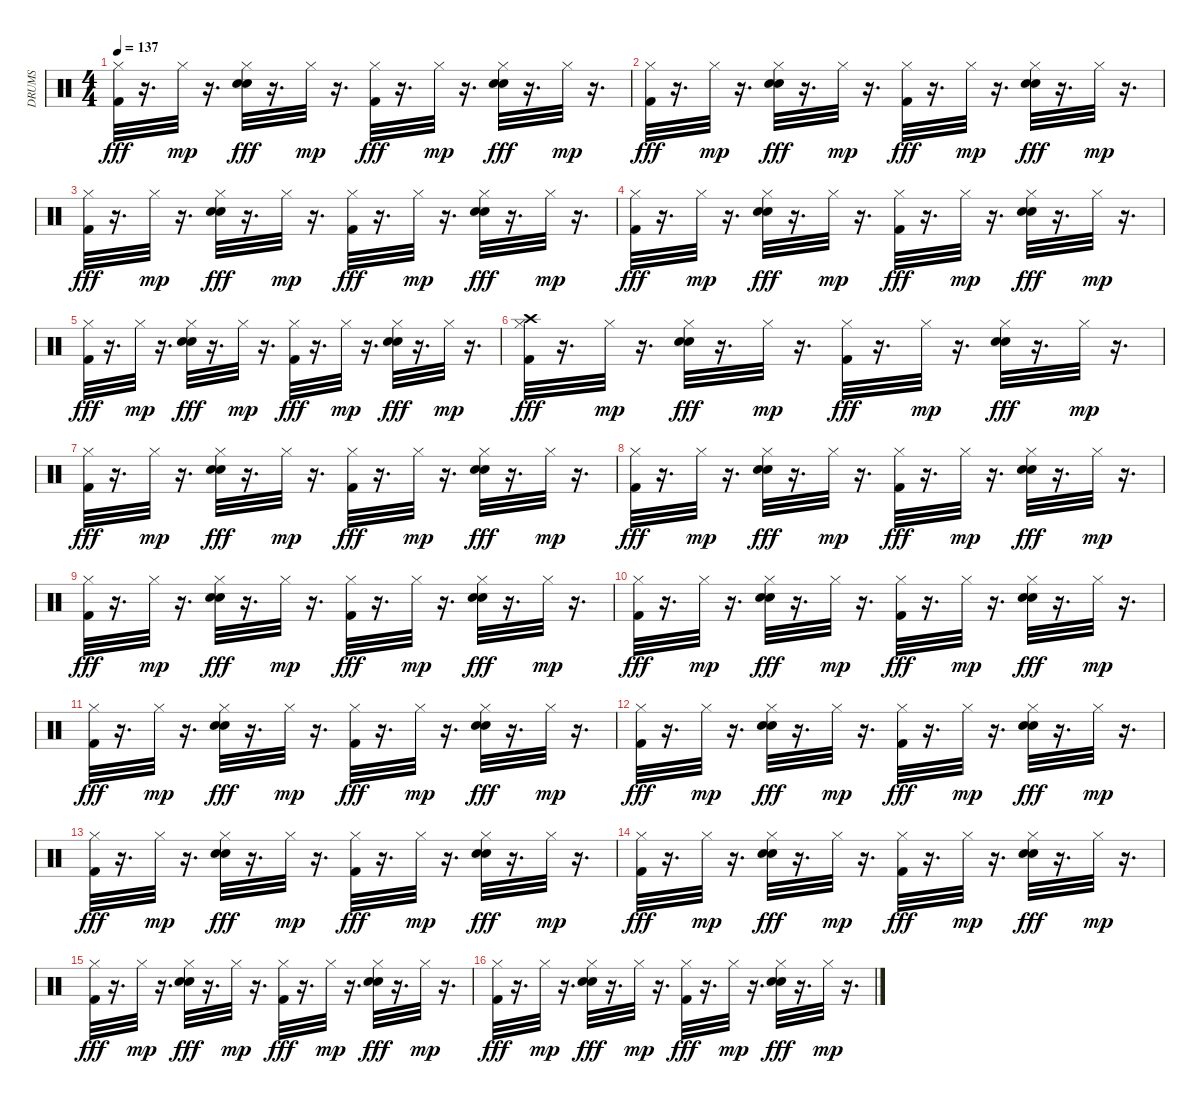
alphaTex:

\track ("DRUMS" "DRUMS") {instrument percussion}
\staff {score}
\articulation defaults
\ts (4 4)
\tempo 137
\clef neutral
\ks c
("Hi-Hat (closed)" "Kick (hit) 2").32{dy fff} r.16{d} "Hi-Hat (closed)".32{dy mp} r.16{d} ("Hand Clap (hit)" "Hi-Hat (closed)" "Snare (hit) 2").32{dy fff} r.16{d} "Hi-Hat (closed)".32{dy mp} r.16{d} ("Hi-Hat (closed)" "Kick (hit) 2").32{dy fff} r.16{d} "Hi-Hat (closed)".32{dy mp} r.16{d} ("Hand Clap (hit)" "Hi-Hat (closed)" "Snare (hit) 2").32{dy fff} r.16{d} "Hi-Hat (closed)".32{dy mp} r.16{d} |
("Kick (hit) 2" "Hi-Hat (closed)").32{dy fff} r.16{d} "Hi-Hat (closed)".32{dy mp} r.16{d} ("Hand Clap (hit)" "Hi-Hat (closed)" "Snare (hit) 2").32{dy fff} r.16{d} "Hi-Hat (closed)".32{dy mp} r.16{d} ("Hi-Hat (closed)" "Kick (hit) 2").32{dy fff} r.16{d} "Hi-Hat (closed)".32{dy mp} r.16{d} ("Hand Clap (hit)" "Hi-Hat (closed)" "Snare (hit) 2").32{dy fff} r.16{d} "Hi-Hat (closed)".32{dy mp} r.16{d} |
("Hi-Hat (closed)" "Kick (hit) 2").32{dy fff} r.16{d} "Hi-Hat (closed)".32{dy mp} r.16{d} ("Hand Clap (hit)" "Hi-Hat (closed)" "Snare (hit) 2").32{dy fff} r.16{d} "Hi-Hat (closed)".32{dy mp} r.16{d} ("Hi-Hat (closed)" "Kick (hit) 2").32{dy fff} r.16{d} "Hi-Hat (closed)".32{dy mp} r.16{d} ("Hand Clap (hit)" "Hi-Hat (closed)" "Snare (hit) 2").32{dy fff} r.16{d} "Hi-Hat (closed)".32{dy mp} r.16{d} |
("Hi-Hat (closed)" "Kick (hit) 2").32{dy fff} r.16{d} "Hi-Hat (closed)".32{dy mp} r.16{d} ("Hand Clap (hit)" "Hi-Hat (closed)" "Snare (hit) 2").32{dy fff} r.16{d} "Hi-Hat (closed)".32{dy mp} r.16{d} ("Hi-Hat (closed)" "Kick (hit) 2").32{dy fff} r.16{d} "Hi-Hat (closed)".32{dy mp} r.16{d} ("Hand Clap (hit)" "Hi-Hat (closed)" "Snare (hit) 2").32{dy fff} r.16{d} "Hi-Hat (closed)".32{dy mp} r.16{d} |
("Hi-Hat (closed)" "Kick (hit) 2").32{dy fff} r.16{d} "Hi-Hat (closed)".32{dy mp} r.16{d} ("Hand Clap (hit)" "Hi-Hat (closed)" "Snare (hit) 2").32{dy fff} r.16{d} "Hi-Hat (closed)".32{dy mp} r.16{d} ("Hi-Hat (closed)" "Kick (hit) 2").32{dy fff} r.16{d} "Hi-Hat (closed)".32{dy mp} r.16{d} ("Hand Clap (hit)" "Hi-Hat (closed)" "Snare (hit) 2").32{dy fff} r.16{d} "Hi-Hat (closed)".32{dy mp} r.16{d} |
("Kick (hit) 2" "Hi-Hat (closed)" "Crash high (hit)").32{dy fff} r.16{d} "Hi-Hat (closed)".32{dy mp} r.16{d} ("Hand Clap (hit)" "Hi-Hat (closed)" "Snare (hit) 2").32{dy fff} r.16{d} "Hi-Hat (closed)".32{dy mp} r.16{d} ("Hi-Hat (closed)" "Kick (hit) 2").32{dy fff} r.16{d} "Hi-Hat (closed)".32{dy mp} r.16{d} ("Snare (hit) 2" "Hand Clap (hit)" "Hi-Hat (closed)").32{dy fff} r.16{d} "Hi-Hat (closed)".32{dy mp} r.16{d} |
("Hi-Hat (closed)" "Kick (hit) 2").32{dy fff} r.16{d} "Hi-Hat (closed)".32{dy mp} r.16{d} ("Hand Clap (hit)" "Hi-Hat (closed)" "Snare (hit) 2").32{dy fff} r.16{d} "Hi-Hat (closed)".32{dy mp} r.16{d} ("Hi-Hat (closed)" "Kick (hit) 2").32{dy fff} r.16{d} "Hi-Hat (closed)".32{dy mp} r.16{d} ("Hand Clap (hit)" "Hi-Hat (closed)" "Snare (hit) 2").32{dy fff} r.16{d} "Hi-Hat (closed)".32{dy mp} r.16{d} |
("Hi-Hat (closed)" "Kick (hit) 2").32{dy fff} r.16{d} "Hi-Hat (closed)".32{dy mp} r.16{d} ("Hand Clap (hit)" "Hi-Hat (closed)" "Snare (hit) 2").32{dy fff} r.16{d} "Hi-Hat (closed)".32{dy mp} r.16{d} ("Hi-Hat (closed)" "Kick (hit) 2").32{dy fff} r.16{d} "Hi-Hat (closed)".32{dy mp} r.16{d} ("Hand Clap (hit)" "Hi-Hat (closed)" "Snare (hit) 2").32{dy fff} r.16{d} "Hi-Hat (closed)".32{dy mp} r.16{d} |
("Hi-Hat (closed)" "Kick (hit) 2").32{dy fff} r.16{d} "Hi-Hat (closed)".32{dy mp} r.16{d} ("Hand Clap (hit)" "Hi-Hat (closed)" "Snare (hit) 2").32{dy fff} r.16{d} "Hi-Hat (closed)".32{dy mp} r.16{d} ("Hi-Hat (closed)" "Kick (hit) 2").32{dy fff} r.16{d} "Hi-Hat (closed)".32{dy mp} r.16{d} ("Hand Clap (hit)" "Hi-Hat (closed)" "Snare (hit) 2").32{dy fff} r.16{d} "Hi-Hat (closed)".32{dy mp} r.16{d} |
("Hi-Hat (closed)" "Kick (hit) 2").32{dy fff} r.16{d} "Hi-Hat (closed)".32{dy mp} r.16{d} ("Hand Clap (hit)" "Hi-Hat (closed)" "Snare (hit) 2").32{dy fff} r.16{d} "Hi-Hat (closed)".32{dy mp} r.16{d} ("Hi-Hat (closed)" "Kick (hit) 2").32{dy fff} r.16{d} "Hi-Hat (closed)".32{dy mp} r.16{d} ("Hand Clap (hit)" "Hi-Hat (closed)" "Snare (hit) 2").32{dy fff} r.16{d} "Hi-Hat (closed)".32{dy mp} r.16{d} |
("Hi-Hat (closed)" "Kick (hit) 2").32{dy fff} r.16{d} "Hi-Hat (closed)".32{dy mp} r.16{d} ("Hand Clap (hit)" "Hi-Hat (closed)" "Snare (hit) 2").32{dy fff} r.16{d} "Hi-Hat (closed)".32{dy mp} r.16{d} ("Hi-Hat (closed)" "Kick (hit) 2").32{dy fff} r.16{d} "Hi-Hat (closed)".32{dy mp} r.16{d} ("Hand Clap (hit)" "Hi-Hat (closed)" "Snare (hit) 2").32{dy fff} r.16{d} "Hi-Hat (closed)".32{dy mp} r.16{d} |
("Hi-Hat (closed)" "Kick (hit) 2").32{dy fff} r.16{d} "Hi-Hat (closed)".32{dy mp} r.16{d} ("Hand Clap (hit)" "Hi-Hat (closed)" "Snare (hit) 2").32{dy fff} r.16{d} "Hi-Hat (closed)".32{dy mp} r.16{d} ("Hi-Hat (closed)" "Kick (hit) 2").32{dy fff} r.16{d} "Hi-Hat (closed)".32{dy mp} r.16{d} ("Hand Clap (hit)" "Hi-Hat (closed)" "Snare (hit) 2").32{dy fff} r.16{d} "Hi-Hat (closed)".32{dy mp} r.16{d} |
("Hi-Hat (closed)" "Kick (hit) 2").32{dy fff} r.16{d} "Hi-Hat (closed)".32{dy mp} r.16{d} ("Hand Clap (hit)" "Hi-Hat (closed)" "Snare (hit) 2").32{dy fff} r.16{d} "Hi-Hat (closed)".32{dy mp} r.16{d} ("Hi-Hat (closed)" "Kick (hit) 2").32{dy fff} r.16{d} "Hi-Hat (closed)".32{dy mp} r.16{d} ("Hand Clap (hit)" "Hi-Hat (closed)" "Snare (hit) 2").32{dy fff} r.16{d} "Hi-Hat (closed)".32{dy mp} r.16{d} |
("Hi-Hat (closed)" "Kick (hit) 2").32{dy fff} r.16{d} "Hi-Hat (closed)".32{dy mp} r.16{d} ("Hand Clap (hit)" "Hi-Hat (closed)" "Snare (hit) 2").32{dy fff} r.16{d} "Hi-Hat (closed)".32{dy mp} r.16{d} ("Hi-Hat (closed)" "Kick (hit) 2").32{dy fff} r.16{d} "Hi-Hat (closed)".32{dy mp} r.16{d} ("Hand Clap (hit)" "Hi-Hat (closed)" "Snare (hit) 2").32{dy fff} r.16{d} "Hi-Hat (closed)".32{dy mp} r.16{d} |
("Hi-Hat (closed)" "Kick (hit) 2").32{dy fff} r.16{d} "Hi-Hat (closed)".32{dy mp} r.16{d} ("Hand Clap (hit)" "Hi-Hat (closed)" "Snare (hit) 2").32{dy fff} r.16{d} "Hi-Hat (closed)".32{dy mp} r.16{d} ("Hi-Hat (closed)" "Kick (hit) 2").32{dy fff} r.16{d} "Hi-Hat (closed)".32{dy mp} r.16{d} ("Hand Clap (hit)" "Hi-Hat (closed)" "Snare (hit) 2").32{dy fff} r.16{d} "Hi-Hat (closed)".32{dy mp} r.16{d} |
("Hi-Hat (closed)" "Kick (hit) 2").32{dy fff} r.16{d} "Hi-Hat (closed)".32{dy mp} r.16{d} ("Hand Clap (hit)" "Hi-Hat (closed)" "Snare (hit) 2").32{dy fff} r.16{d} "Hi-Hat (closed)".32{dy mp} r.16{d} ("Hi-Hat (closed)" "Kick (hit) 2").32{dy fff} r.16{d} "Hi-Hat (closed)".32{dy mp} r.16{d} ("Hand Clap (hit)" "Hi-Hat (closed)" "Snare (hit) 2").32{dy fff} r.16{d} "Hi-Hat (closed)".32{dy mp} r.16{d}
